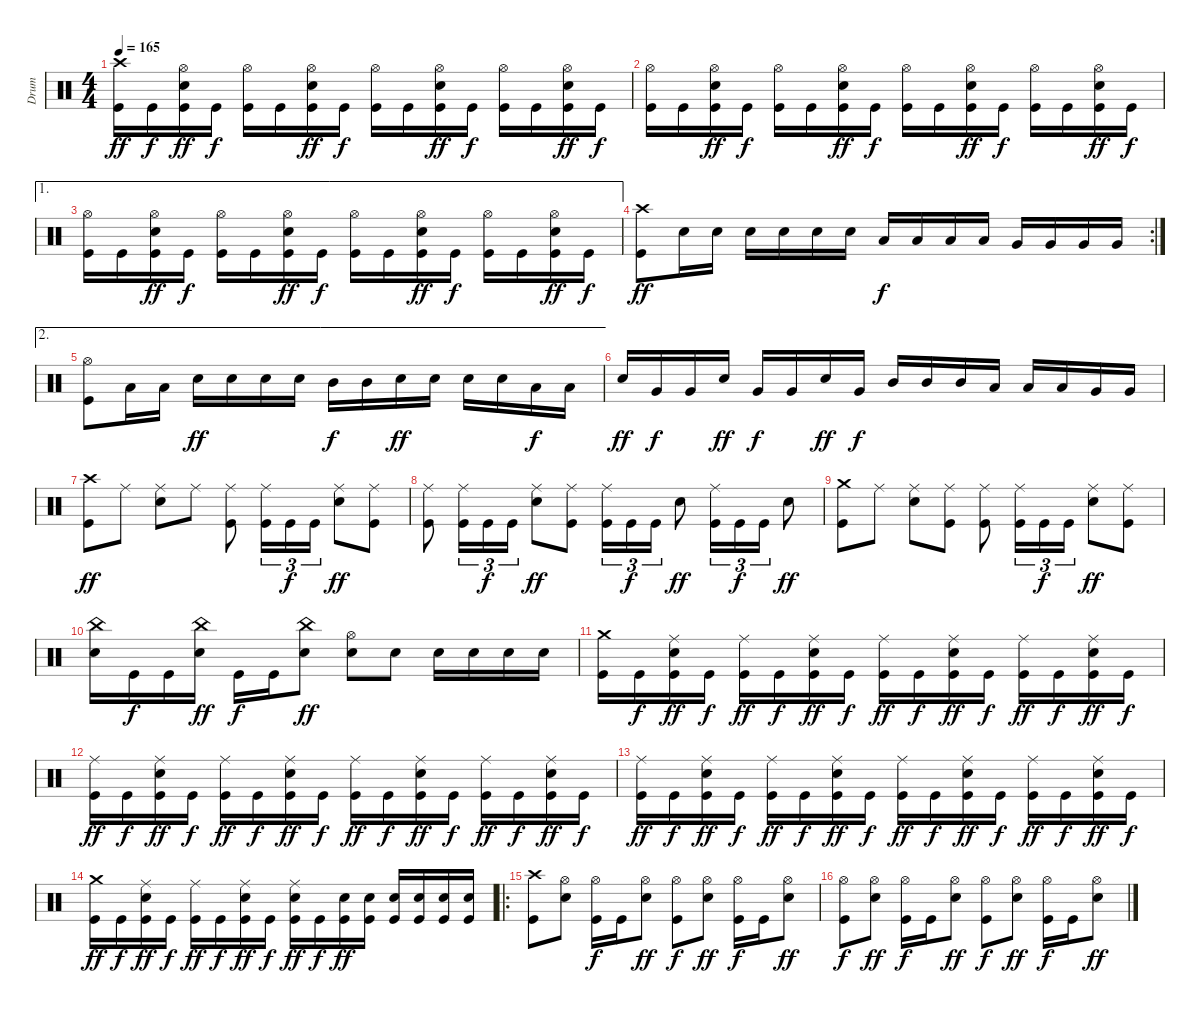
\track ("Drum" "Drum") {instrument percussion}
\staff {score}
\articulation defaults
\ts (4 4)
\tempo 165
\clef neutral
\ks c
("Kick (hit)" "Crash high (hit)").16{dy ff} "Kick (hit)".16{dy f} ("Kick (hit)" "Electric Snare (hit)" "Hi-Hat (open)").16{dy ff} "Kick (hit)".16{dy f} ("Kick (hit)" "Hi-Hat (open)").16 "Kick (hit)".16 ("Kick (hit)" "Electric Snare (hit)" "Hi-Hat (open)").16{dy ff} "Kick (hit)".16{dy f} ("Kick (hit)" "Hi-Hat (open)").16 "Kick (hit)".16 ("Kick (hit)" "Electric Snare (hit)" "Hi-Hat (open)").16{dy ff} "Kick (hit)".16{dy f} ("Kick (hit)" "Hi-Hat (open)").16 "Kick (hit)".16 ("Kick (hit)" "Electric Snare (hit)" "Hi-Hat (open)").16{dy ff} "Kick (hit)".16{dy f} |
("Kick (hit)" "Hi-Hat (open)").16 "Kick (hit)".16 ("Kick (hit)" "Electric Snare (hit)" "Hi-Hat (open)").16{dy ff} "Kick (hit)".16{dy f} ("Kick (hit)" "Hi-Hat (open)").16 "Kick (hit)".16 ("Kick (hit)" "Electric Snare (hit)" "Hi-Hat (open)").16{dy ff} "Kick (hit)".16{dy f} ("Kick (hit)" "Hi-Hat (open)").16 "Kick (hit)".16 ("Kick (hit)" "Electric Snare (hit)" "Hi-Hat (open)").16{dy ff} "Kick (hit)".16{dy f} ("Kick (hit)" "Hi-Hat (open)").16 "Kick (hit)".16 ("Kick (hit)" "Electric Snare (hit)" "Hi-Hat (open)").16{dy ff} "Kick (hit)".16{dy f} |
\ae 1
("Kick (hit)" "Hi-Hat (open)").16 "Kick (hit)".16 ("Kick (hit)" "Electric Snare (hit)" "Hi-Hat (open)").16{dy ff} "Kick (hit)".16{dy f} ("Kick (hit)" "Hi-Hat (open)").16 "Kick (hit)".16 ("Kick (hit)" "Electric Snare (hit)" "Hi-Hat (open)").16{dy ff} "Kick (hit)".16{dy f} ("Kick (hit)" "Hi-Hat (open)").16 "Kick (hit)".16 ("Kick (hit)" "Electric Snare (hit)" "Hi-Hat (open)").16{dy ff} "Kick (hit)".16{dy f} ("Kick (hit)" "Hi-Hat (open)").16 "Kick (hit)".16 ("Kick (hit)" "Electric Snare (hit)" "Hi-Hat (open)").16{dy ff} "Kick (hit)".16{dy f} |
\rc 2
("Kick (hit)" "Crash high (hit)").8{dy ff} "Electric Snare (hit)".16 "Electric Snare (hit)".16 "Electric Snare (hit)".16 "Electric Snare (hit)".16 "Electric Snare (hit)".16 "Electric Snare (hit)".16 "Low Tom (hit)".16{dy f} "Low Tom (hit)".16 "Low Tom (hit)".16 "Low Tom (hit)".16 "Very Low Tom (hit)".16 "Very Low Tom (hit)".16 "Very Low Tom (hit)".16 "Very Low Tom (hit)".16 |
\ae 2
("Kick (hit)" "Hi-Hat (open)").8 "Low Tom (hit)".16 "Low Tom (hit)".16 "Electric Snare (hit)".16{dy ff} "Electric Snare (hit)".16 "Electric Snare (hit)".16 "Electric Snare (hit)".16 "Mid Tom (hit)".16{dy f} "Mid Tom (hit)".16 "Electric Snare (hit)".16{dy ff} "Electric Snare (hit)".16 "Electric Snare (hit)".16 "Electric Snare (hit)".16 "Low Tom (hit)".16{dy f} "Low Tom (hit)".16 |
"Electric Snare (hit)".16{dy ff} "Very Low Tom (hit)".16{dy f} "Very Low Tom (hit)".16 "Electric Snare (hit)".16{dy ff} "Very Low Tom (hit)".16{dy f} "Very Low Tom (hit)".16 "Electric Snare (hit)".16{dy ff} "Very Low Tom (hit)".16{dy f} "Mid Tom (hit)".16 "Mid Tom (hit)".16 "Mid Tom (hit)".16 "Low Tom (hit)".16 "Low Tom (hit)".16 "Low Tom (hit)".16 "Very Low Tom (hit)".16 "Very Low Tom (hit)".16 |
("Kick (hit)" "Crash high (hit)").8{dy ff} "Ride (middle)".8 ("Electric Snare (hit)" "Ride (middle)").8 "Ride (middle)".8 ("Kick (hit)" "Ride (middle)").8 ("Kick (hit)" "Ride (middle)").16{tu (3 2)} "Kick (hit)".16{tu (3 2) dy f} "Kick (hit)".16{tu (3 2)} ("Electric Snare (hit)" "Ride (middle)").8{dy ff} ("Kick (hit)" "Ride (middle)").8 |
("Kick (hit)" "Ride (middle)").8 ("Kick (hit)" "Ride (middle)").16{tu (3 2)} "Kick (hit)".16{tu (3 2) dy f} "Kick (hit)".16{tu (3 2)} ("Electric Snare (hit)" "Ride (middle)").8{dy ff} ("Kick (hit)" "Ride (middle)").8 ("Kick (hit)" "Ride (middle)").16{tu (3 2)} "Kick (hit)".16{tu (3 2) dy f} "Kick (hit)".16{tu (3 2)} "Electric Snare (hit)".8{dy ff} ("Kick (hit)" "Ride (middle)").16{tu (3 2)} "Kick (hit)".16{tu (3 2) dy f} "Kick (hit)".16{tu (3 2)} "Electric Snare (hit)".8{dy ff} |
("Kick (hit)" "Crash medium (hit)").8 "Ride (middle)".8 ("Electric Snare (hit)" "Ride (middle)").8 ("Kick (hit)" "Ride (middle)").8 ("Kick (hit)" "Ride (middle)").8 ("Kick (hit)" "Ride (middle)").16{tu (3 2)} "Kick (hit)".16{tu (3 2) dy f} "Kick (hit)".16{tu (3 2)} ("Electric Snare (hit)" "Ride (middle)").8{dy ff} ("Kick (hit)" "Ride (middle)").8 |
("Electric Snare (hit)" "China (hit)").16 "Kick (hit)".16{dy f} "Kick (hit)".16 ("Electric Snare (hit)" "China (hit)").16{dy ff} "Kick (hit)".16{dy f} "Kick (hit)".16 ("Electric Snare (hit)" "China (hit)").8{dy ff} ("Electric Snare (hit)" "Hi-Hat (open)").8 "Electric Snare (hit)".8 "Electric Snare (hit)".16 "Electric Snare (hit)".16 "Electric Snare (hit)".16 "Electric Snare (hit)".16 |
("Kick (hit)" "Crash medium (hit)").16 "Kick (hit)".16{dy f} ("Kick (hit)" "Electric Snare (hit)" "Ride (middle)").16{dy ff} "Kick (hit)".16{dy f} ("Kick (hit)" "Ride (middle)").16{dy ff} "Kick (hit)".16{dy f} ("Kick (hit)" "Electric Snare (hit)" "Ride (middle)").16{dy ff} "Kick (hit)".16{dy f} ("Kick (hit)" "Ride (middle)").16{dy ff} "Kick (hit)".16{dy f} ("Kick (hit)" "Electric Snare (hit)" "Ride (middle)").16{dy ff} "Kick (hit)".16{dy f} ("Kick (hit)" "Ride (middle)").16{dy ff} "Kick (hit)".16{dy f} ("Kick (hit)" "Electric Snare (hit)" "Ride (middle)").16{dy ff} "Kick (hit)".16{dy f} |
("Kick (hit)" "Ride (middle)").16{dy ff} "Kick (hit)".16{dy f} ("Kick (hit)" "Electric Snare (hit)" "Ride (middle)").16{dy ff} "Kick (hit)".16{dy f} ("Kick (hit)" "Ride (middle)").16{dy ff} "Kick (hit)".16{dy f} ("Kick (hit)" "Electric Snare (hit)" "Ride (middle)").16{dy ff} "Kick (hit)".16{dy f} ("Kick (hit)" "Ride (middle)").16{dy ff} "Kick (hit)".16{dy f} ("Kick (hit)" "Electric Snare (hit)" "Ride (middle)").16{dy ff} "Kick (hit)".16{dy f} ("Kick (hit)" "Ride (middle)").16{dy ff} "Kick (hit)".16{dy f} ("Kick (hit)" "Electric Snare (hit)" "Ride (middle)").16{dy ff} "Kick (hit)".16{dy f} |
("Kick (hit)" "Ride (middle)").16{dy ff} "Kick (hit)".16{dy f} ("Kick (hit)" "Electric Snare (hit)" "Ride (middle)").16{dy ff} "Kick (hit)".16{dy f} ("Kick (hit)" "Ride (middle)").16{dy ff} "Kick (hit)".16{dy f} ("Kick (hit)" "Electric Snare (hit)" "Ride (middle)").16{dy ff} "Kick (hit)".16{dy f} ("Kick (hit)" "Ride (middle)").16{dy ff} "Kick (hit)".16{dy f} ("Kick (hit)" "Electric Snare (hit)" "Ride (middle)").16{dy ff} "Kick (hit)".16{dy f} ("Kick (hit)" "Ride (middle)").16{dy ff} "Kick (hit)".16{dy f} ("Kick (hit)" "Electric Snare (hit)" "Ride (middle)").16{dy ff} "Kick (hit)".16{dy f} |
("Kick (hit)" "Crash medium (hit)").16{dy ff} "Kick (hit)".16{dy f} ("Kick (hit)" "Electric Snare (hit)" "Ride (middle)").16{dy ff} "Kick (hit)".16{dy f} ("Kick (hit)" "Ride (middle)").16{dy ff} "Kick (hit)".16{dy f} ("Kick (hit)" "Electric Snare (hit)" "Ride (middle)").16{dy ff} "Kick (hit)".16{dy f} ("Kick (hit)" "Electric Snare (hit)" "Ride (middle)").16{dy ff} "Kick (hit)".16{dy f} ("Kick (hit)" "Electric Snare (hit)").16{dy ff} ("Kick (hit)" "Electric Snare (hit)").16 ("Kick (hit)" "Electric Snare (hit)").16 ("Kick (hit)" "Electric Snare (hit)").16 ("Kick (hit)" "Electric Snare (hit)").16 ("Kick (hit)" "Electric Snare (hit)").16 |
\ro
("Kick (hit)" "Crash high (hit)").8 ("Electric Snare (hit)" "Hi-Hat (open)").8 ("Kick (hit)" "Hi-Hat (open)").16{dy f} "Kick (hit)".16 ("Electric Snare (hit)" "Hi-Hat (open)").8{dy ff} ("Kick (hit)" "Hi-Hat (open)").8{dy f} ("Electric Snare (hit)" "Hi-Hat (open)").8{dy ff} ("Kick (hit)" "Hi-Hat (open)").16{dy f} "Kick (hit)".16 ("Electric Snare (hit)" "Hi-Hat (open)").8{dy ff} |
("Kick (hit)" "Hi-Hat (open)").8{dy f} ("Electric Snare (hit)" "Hi-Hat (open)").8{dy ff} ("Kick (hit)" "Hi-Hat (open)").16{dy f} "Kick (hit)".16 ("Electric Snare (hit)" "Hi-Hat (open)").8{dy ff} ("Kick (hit)" "Hi-Hat (open)").8{dy f} ("Electric Snare (hit)" "Hi-Hat (open)").8{dy ff} ("Kick (hit)" "Hi-Hat (open)").16{dy f} "Kick (hit)".16 ("Electric Snare (hit)" "Hi-Hat (open)").8{dy ff}
